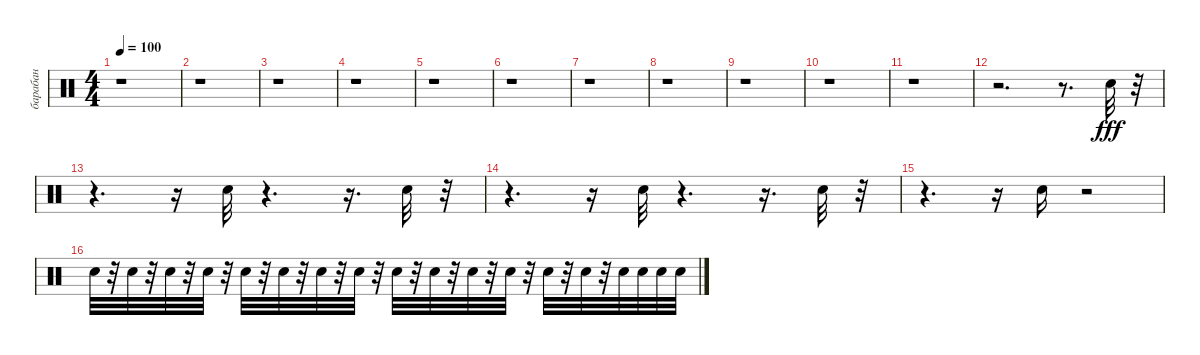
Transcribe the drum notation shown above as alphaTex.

\track ("барабан" "барабан") {instrument percussion}
\staff {score}
\articulation defaults
\ts (4 4)
\tempo 100
\clef neutral
\ks c
r.1{dy fff} |
r.1 |
r.1 |
r.1 |
r.1 |
r.1 |
r.1 |
r.1 |
r.1 |
r.1 |
r.1 |
r.2{d} r.8{d} "Snare (hit) 2".32 r.32 |
r.4{d} r.16 "Snare (hit) 2".32 r.4{d} r.16{d} "Snare (hit) 2".32 r.32 |
r.4{d} r.16 "Snare (hit) 2".32 r.4{d} r.16{d} "Snare (hit) 2".32 r.32 |
r.4{d} r.16 "Snare (hit) 2".16 r.2 |
"Snare (hit) 2".32 r.32 "Snare (hit) 2".32 r.32 "Snare (hit) 2".32 r.32 "Snare (hit) 2".32 r.32 "Snare (hit) 2".32 r.32 "Snare (hit) 2".32 r.32 "Snare (hit) 2".32 r.32 "Snare (hit) 2".32 r.32 "Snare (hit) 2".32 r.32 "Snare (hit) 2".32 r.32 "Snare (hit) 2".32 r.32 "Snare (hit) 2".32 r.32 "Snare (hit) 2".32 r.32 "Snare (hit) 2".32 r.32 "Snare (hit) 2".32 "Snare (hit) 2".32 "Snare (hit) 2".32 "Snare (hit) 2".32
